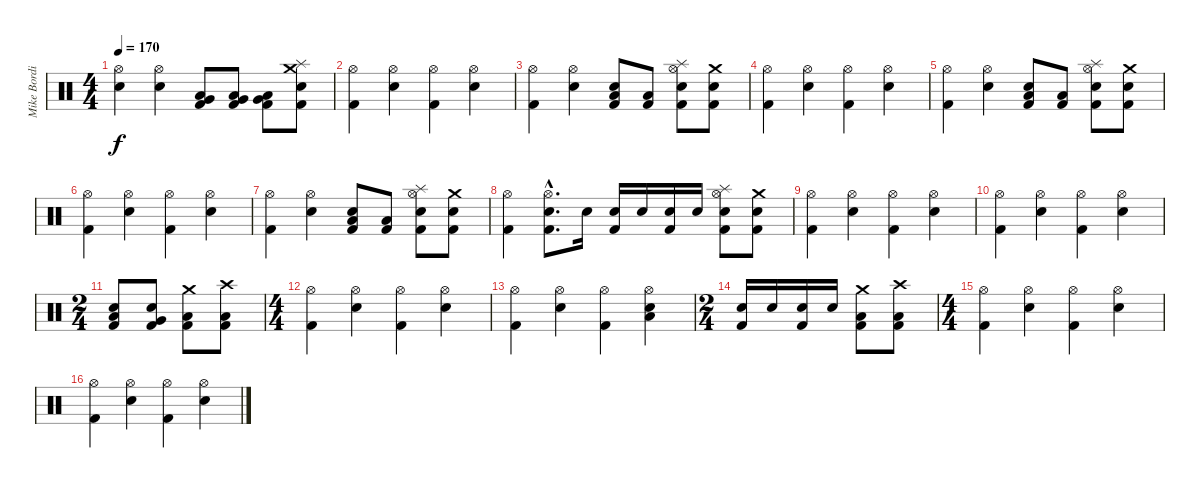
\track ("Mike Bordin" "Mike Bordi") {instrument percussion}
\staff {score}
\articulation defaults
\ts (4 4)
\tempo 170
\clef neutral
\ks c
("Hi-Hat (open)" "Electric Snare (hit)").4{dy f} ("Hi-Hat (open)" "Electric Snare (hit)").4 ("Low Floor Tom (hit)" "Very Low Tom (hit)" "Kick (hit) 2").8 ("Low Floor Tom (hit)" "Very Low Tom (hit)" "Kick (hit) 2").8 ("Very Low Tom (hit)" "Low Tom (hit)" "Kick (hit) 2").8 ("Crash medium (hit)" "Splash (hit)" "Electric Snare (hit)" "Kick (hit) 2").8 |
("Hi-Hat (open)" "Kick (hit) 2").4 ("Hi-Hat (open)" "Electric Snare (hit)").4 ("Hi-Hat (open)" "Kick (hit) 2").4 ("Hi-Hat (open)" "Electric Snare (hit)").4 |
("Hi-Hat (open)" "Kick (hit) 2").4 ("Hi-Hat (open)" "Electric Snare (hit)").4 ("Electric Snare (hit)" "Low Floor Tom (hit)" "Kick (hit) 2").8 ("Low Floor Tom (hit)" "Kick (hit) 2").8 ("Splash (hit)" "Hi-Hat (open)" "Electric Snare (hit)" "Kick (hit) 2").8 ("Crash medium (hit)" "Electric Snare (hit)" "Kick (hit) 2").8 |
("Hi-Hat (open)" "Kick (hit) 2").4 ("Hi-Hat (open)" "Electric Snare (hit)").4 ("Hi-Hat (open)" "Kick (hit) 2").4 ("Hi-Hat (open)" "Electric Snare (hit)").4 |
("Hi-Hat (open)" "Kick (hit) 2").4 ("Hi-Hat (open)" "Electric Snare (hit)").4 ("Electric Snare (hit)" "Low Floor Tom (hit)" "Kick (hit) 2").8 ("Low Floor Tom (hit)" "Kick (hit) 2").8 ("Splash (hit)" "Hi-Hat (open)" "Electric Snare (hit)" "Kick (hit) 2").8 ("Crash medium (hit)" "Electric Snare (hit)" "Kick (hit) 2").8 |
("Hi-Hat (open)" "Kick (hit) 2").4 ("Hi-Hat (open)" "Electric Snare (hit)").4 ("Hi-Hat (open)" "Kick (hit) 2").4 ("Hi-Hat (open)" "Electric Snare (hit)").4 |
("Hi-Hat (open)" "Kick (hit) 2").4 ("Hi-Hat (open)" "Electric Snare (hit)").4 ("Electric Snare (hit)" "Low Floor Tom (hit)" "Kick (hit) 2").8 ("Low Floor Tom (hit)" "Kick (hit) 2").8 ("Splash (hit)" "Hi-Hat (open)" "Electric Snare (hit)" "Kick (hit) 2").8 ("Crash medium (hit)" "Electric Snare (hit)" "Kick (hit) 2").8 |
("Hi-Hat (open)" "Kick (hit) 2").4 ("Hi-Hat (open)"{hac} "Electric Snare (hit)"{hac} "Kick (hit) 2"{hac}).8{d} "Electric Snare (hit)".16 ("Electric Snare (hit)" "Kick (hit) 2").16 "Electric Snare (hit)".16 ("Electric Snare (hit)" "Kick (hit) 2").16 "Electric Snare (hit)".16 ("Splash (hit)" "Hi-Hat (open)" "Electric Snare (hit)" "Kick (hit) 2").8 ("Crash medium (hit)" "Electric Snare (hit)" "Kick (hit) 2").8 |
("Hi-Hat (open)" "Kick (hit) 2").4 ("Hi-Hat (open)" "Electric Snare (hit)").4 ("Hi-Hat (open)" "Kick (hit) 2").4 ("Hi-Hat (open)" "Electric Snare (hit)").4 |
("Hi-Hat (open)" "Kick (hit) 2").4 ("Hi-Hat (open)" "Electric Snare (hit)").4 ("Hi-Hat (open)" "Kick (hit) 2").4 ("Hi-Hat (open)" "Electric Snare (hit)").4 |
\ts (2 4)
("Electric Snare (hit)" "Low Tom (hit)" "Kick (hit) 2").8 ("Electric Snare (hit)" "Very Low Tom (hit)" "Kick (hit) 2").8 ("Crash medium (hit)" "Low Floor Tom (hit)" "Kick (hit) 2").8 ("Crash high (hit)" "Low Floor Tom (hit)" "Kick (hit) 2").8 |
\ts (4 4)
("Hi-Hat (open)" "Kick (hit) 2").4 ("Hi-Hat (open)" "Electric Snare (hit)").4 ("Hi-Hat (open)" "Kick (hit) 2").4 ("Hi-Hat (open)" "Electric Snare (hit)").4 |
("Hi-Hat (open)" "Kick (hit) 2").4 ("Hi-Hat (open)" "Electric Snare (hit)").4 ("Hi-Hat (open)" "Kick (hit) 2").4 ("Hi-Hat (open)" "Electric Snare (hit)" "Low Floor Tom (hit)").4 |
\ts (2 4)
("Electric Snare (hit)" "Kick (hit) 2").16 "Electric Snare (hit)".16 ("Electric Snare (hit)" "Kick (hit) 2").16 "Electric Snare (hit)".16 ("Crash medium (hit)" "Low Floor Tom (hit)" "Kick (hit) 2").8 ("Crash high (hit)" "Low Floor Tom (hit)" "Kick (hit) 2").8 |
\ts (4 4)
("Hi-Hat (open)" "Kick (hit) 2").4 ("Hi-Hat (open)" "Electric Snare (hit)").4 ("Hi-Hat (open)" "Kick (hit) 2").4 ("Hi-Hat (open)" "Electric Snare (hit)").4 |
("Hi-Hat (open)" "Kick (hit) 2").4 ("Hi-Hat (open)" "Electric Snare (hit)").4 ("Hi-Hat (open)" "Kick (hit) 2").4 ("Hi-Hat (open)" "Electric Snare (hit)").4
